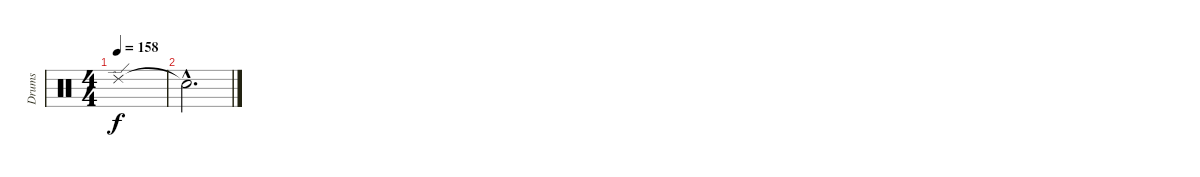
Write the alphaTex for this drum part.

\track ("Drums" "Drums") {instrument percussion}
\staff {score}
\articulation defaults
\ts (4 4)
\tempo 158
\clef neutral
\ks c "Ride (edge) 2".1{dy f}
|
"Snare (hit)"{hac t}.2{d}
